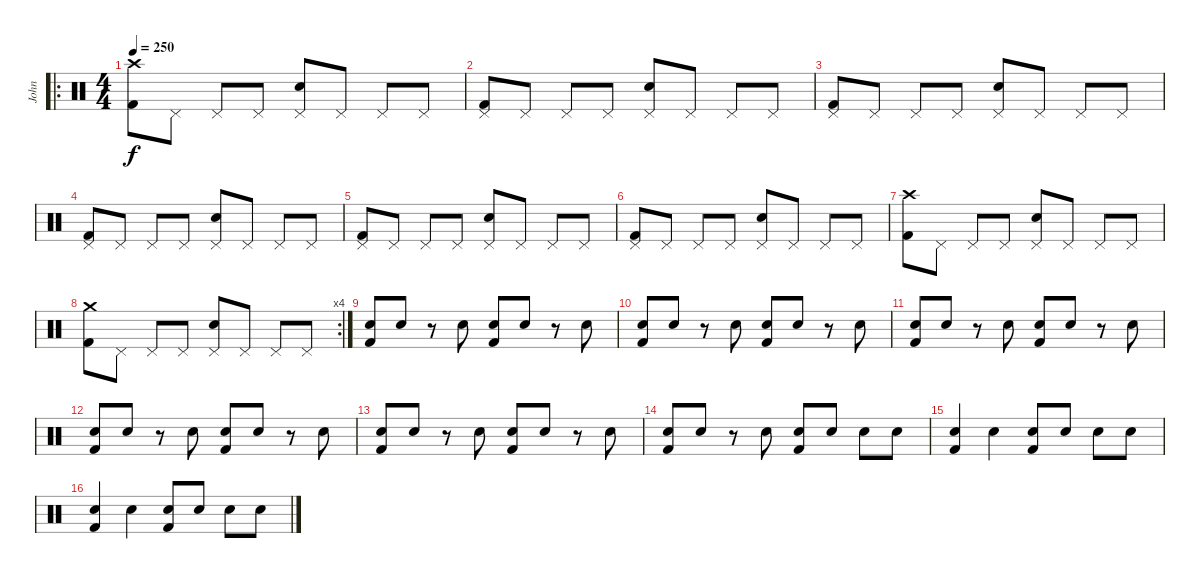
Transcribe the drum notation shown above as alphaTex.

\track ("John" "John") {instrument percussion}
\staff {score}
\articulation defaults
\ro
\ts (4 4)
\tempo 250
\clef neutral
\ks c
("Crash high (hit)" "Kick (hit) 2").8{dy f} "Pedal Hi-Hat (hit)".8 "Pedal Hi-Hat (hit)".8 "Pedal Hi-Hat (hit)".8 ("Pedal Hi-Hat (hit)" "Electric Snare (hit)").8 "Pedal Hi-Hat (hit)".8 "Pedal Hi-Hat (hit)".8 "Pedal Hi-Hat (hit)".8 |
("Pedal Hi-Hat (hit)" "Kick (hit) 2").8 "Pedal Hi-Hat (hit)".8 "Pedal Hi-Hat (hit)".8 "Pedal Hi-Hat (hit)".8 ("Pedal Hi-Hat (hit)" "Electric Snare (hit)").8 "Pedal Hi-Hat (hit)".8 "Pedal Hi-Hat (hit)".8 "Pedal Hi-Hat (hit)".8 |
("Pedal Hi-Hat (hit)" "Kick (hit) 2").8 "Pedal Hi-Hat (hit)".8 "Pedal Hi-Hat (hit)".8 "Pedal Hi-Hat (hit)".8 ("Pedal Hi-Hat (hit)" "Electric Snare (hit)").8 "Pedal Hi-Hat (hit)".8 "Pedal Hi-Hat (hit)".8 "Pedal Hi-Hat (hit)".8 |
("Pedal Hi-Hat (hit)" "Kick (hit) 2").8 "Pedal Hi-Hat (hit)".8 "Pedal Hi-Hat (hit)".8 "Pedal Hi-Hat (hit)".8 ("Pedal Hi-Hat (hit)" "Electric Snare (hit)").8 "Pedal Hi-Hat (hit)".8 "Pedal Hi-Hat (hit)".8 "Pedal Hi-Hat (hit)".8 |
("Pedal Hi-Hat (hit)" "Kick (hit) 2").8 "Pedal Hi-Hat (hit)".8 "Pedal Hi-Hat (hit)".8 "Pedal Hi-Hat (hit)".8 ("Pedal Hi-Hat (hit)" "Electric Snare (hit)").8 "Pedal Hi-Hat (hit)".8 "Pedal Hi-Hat (hit)".8 "Pedal Hi-Hat (hit)".8 |
("Pedal Hi-Hat (hit)" "Kick (hit) 2").8 "Pedal Hi-Hat (hit)".8 "Pedal Hi-Hat (hit)".8 "Pedal Hi-Hat (hit)".8 ("Pedal Hi-Hat (hit)" "Electric Snare (hit)").8 "Pedal Hi-Hat (hit)".8 "Pedal Hi-Hat (hit)".8 "Pedal Hi-Hat (hit)".8 |
("Crash high (hit)" "Kick (hit) 2").8 "Pedal Hi-Hat (hit)".8 "Pedal Hi-Hat (hit)".8 "Pedal Hi-Hat (hit)".8 ("Pedal Hi-Hat (hit)" "Electric Snare (hit)").8 "Pedal Hi-Hat (hit)".8 "Pedal Hi-Hat (hit)".8 "Pedal Hi-Hat (hit)".8 |
\rc 4
("Crash medium (hit)" "Kick (hit) 2").8 "Pedal Hi-Hat (hit)".8 "Pedal Hi-Hat (hit)".8 "Pedal Hi-Hat (hit)".8 ("Pedal Hi-Hat (hit)" "Electric Snare (hit)").8 "Pedal Hi-Hat (hit)".8 "Pedal Hi-Hat (hit)".8 "Pedal Hi-Hat (hit)".8 |
("Electric Snare (hit)" "Kick (hit) 2").8 "Electric Snare (hit)".8 r.8 "Electric Snare (hit)".8 ("Electric Snare (hit)" "Kick (hit) 2").8 "Electric Snare (hit)".8 r.8 "Electric Snare (hit)".8 |
("Electric Snare (hit)" "Kick (hit) 2").8 "Electric Snare (hit)".8 r.8 "Electric Snare (hit)".8 ("Electric Snare (hit)" "Kick (hit) 2").8 "Electric Snare (hit)".8 r.8 "Electric Snare (hit)".8 |
("Electric Snare (hit)" "Kick (hit) 2").8 "Electric Snare (hit)".8 r.8 "Electric Snare (hit)".8 ("Electric Snare (hit)" "Kick (hit) 2").8 "Electric Snare (hit)".8 r.8 "Electric Snare (hit)".8 |
("Electric Snare (hit)" "Kick (hit) 2").8 "Electric Snare (hit)".8 r.8 "Electric Snare (hit)".8 ("Electric Snare (hit)" "Kick (hit) 2").8 "Electric Snare (hit)".8 r.8 "Electric Snare (hit)".8 |
("Electric Snare (hit)" "Kick (hit) 2").8 "Electric Snare (hit)".8 r.8 "Electric Snare (hit)".8 ("Electric Snare (hit)" "Kick (hit) 2").8 "Electric Snare (hit)".8 r.8 "Electric Snare (hit)".8 |
("Electric Snare (hit)" "Kick (hit) 2").8 "Electric Snare (hit)".8 r.8 "Electric Snare (hit)".8 ("Electric Snare (hit)" "Kick (hit) 2").8 "Electric Snare (hit)".8 "Electric Snare (hit)".8 "Electric Snare (hit)".8 |
("Electric Snare (hit)" "Kick (hit) 2").4 "Electric Snare (hit)".4 ("Electric Snare (hit)" "Kick (hit) 2").8 "Electric Snare (hit)".8 "Electric Snare (hit)".8 "Electric Snare (hit)".8 |
("Electric Snare (hit)" "Kick (hit) 2").4 "Electric Snare (hit)".4 ("Electric Snare (hit)" "Kick (hit) 2").8 "Electric Snare (hit)".8 "Electric Snare (hit)".8 "Electric Snare (hit)".8
